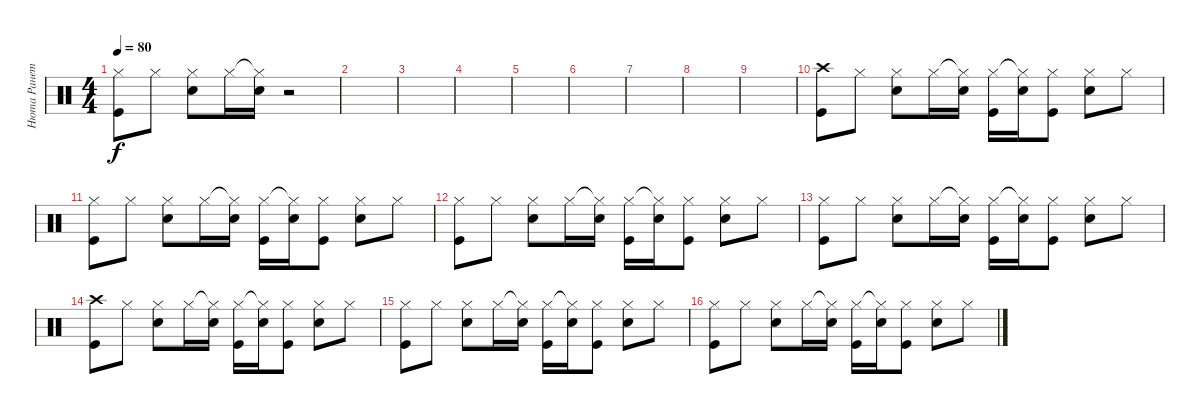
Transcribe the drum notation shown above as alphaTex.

\track ("Нюта Ранетка" "Нюта Ранет") {instrument percussion}
\staff {score}
\articulation defaults
\ts (4 4)
\tempo 80
\clef neutral
\ks c
("Hi-Hat (closed)" "Kick (hit)").8{dy f} "Hi-Hat (closed)".8 ("Hi-Hat (closed)" "Electric Snare (hit)").8 "Hi-Hat (closed)".16 ("Hi-Hat (closed)"{t} "Electric Snare (hit)").16 r.2 |
|
|
|
|
|
|
|
|
("Crash high (hit)" "Kick (hit)").8 "Hi-Hat (closed)".8 ("Hi-Hat (closed)" "Electric Snare (hit)").8 "Hi-Hat (closed)".16 ("Hi-Hat (closed)"{t} "Electric Snare (hit)").16 ("Hi-Hat (closed)" "Kick (hit)").16 ("Hi-Hat (closed)"{t} "Electric Snare (hit)").16 ("Hi-Hat (closed)" "Kick (hit)").8 ("Hi-Hat (closed)" "Electric Snare (hit)").8 "Hi-Hat (closed)".8 |
("Hi-Hat (closed)" "Kick (hit)").8 "Hi-Hat (closed)".8 ("Hi-Hat (closed)" "Electric Snare (hit)").8 "Hi-Hat (closed)".16 ("Hi-Hat (closed)"{t} "Electric Snare (hit)").16 ("Hi-Hat (closed)" "Kick (hit)").16 ("Hi-Hat (closed)"{t} "Electric Snare (hit)").16 ("Hi-Hat (closed)" "Kick (hit)").8 ("Hi-Hat (closed)" "Electric Snare (hit)").8 "Hi-Hat (closed)".8 |
("Hi-Hat (closed)" "Kick (hit)").8 "Hi-Hat (closed)".8 ("Hi-Hat (closed)" "Electric Snare (hit)").8 "Hi-Hat (closed)".16 ("Hi-Hat (closed)"{t} "Electric Snare (hit)").16 ("Hi-Hat (closed)" "Kick (hit)").16 ("Hi-Hat (closed)"{t} "Electric Snare (hit)").16 ("Hi-Hat (closed)" "Kick (hit)").8 ("Hi-Hat (closed)" "Electric Snare (hit)").8 "Hi-Hat (closed)".8 |
("Hi-Hat (closed)" "Kick (hit)").8 "Hi-Hat (closed)".8 ("Hi-Hat (closed)" "Electric Snare (hit)").8 "Hi-Hat (closed)".16 ("Hi-Hat (closed)"{t} "Electric Snare (hit)").16 ("Hi-Hat (closed)" "Kick (hit)").16 ("Hi-Hat (closed)"{t} "Electric Snare (hit)").16 ("Hi-Hat (closed)" "Kick (hit)").8 ("Hi-Hat (closed)" "Electric Snare (hit)").8 "Hi-Hat (closed)".8 |
("Crash high (hit)" "Kick (hit)").8 "Hi-Hat (closed)".8 ("Hi-Hat (closed)" "Electric Snare (hit)").8 "Hi-Hat (closed)".16 ("Hi-Hat (closed)"{t} "Electric Snare (hit)").16 ("Hi-Hat (closed)" "Kick (hit)").16 ("Hi-Hat (closed)"{t} "Electric Snare (hit)").16 ("Hi-Hat (closed)" "Kick (hit)").8 ("Hi-Hat (closed)" "Electric Snare (hit)").8 "Hi-Hat (closed)".8 |
("Hi-Hat (closed)" "Kick (hit)").8 "Hi-Hat (closed)".8 ("Hi-Hat (closed)" "Electric Snare (hit)").8 "Hi-Hat (closed)".16 ("Hi-Hat (closed)"{t} "Electric Snare (hit)").16 ("Hi-Hat (closed)" "Kick (hit)").16 ("Hi-Hat (closed)"{t} "Electric Snare (hit)").16 ("Hi-Hat (closed)" "Kick (hit)").8 ("Hi-Hat (closed)" "Electric Snare (hit)").8 "Hi-Hat (closed)".8 |
("Hi-Hat (closed)" "Kick (hit)").8 "Hi-Hat (closed)".8 ("Hi-Hat (closed)" "Electric Snare (hit)").8 "Hi-Hat (closed)".16 ("Hi-Hat (closed)"{t} "Electric Snare (hit)").16 ("Hi-Hat (closed)" "Kick (hit)").16 ("Hi-Hat (closed)"{t} "Electric Snare (hit)").16 ("Hi-Hat (closed)" "Kick (hit)").8 ("Hi-Hat (closed)" "Electric Snare (hit)").8 "Hi-Hat (closed)".8
